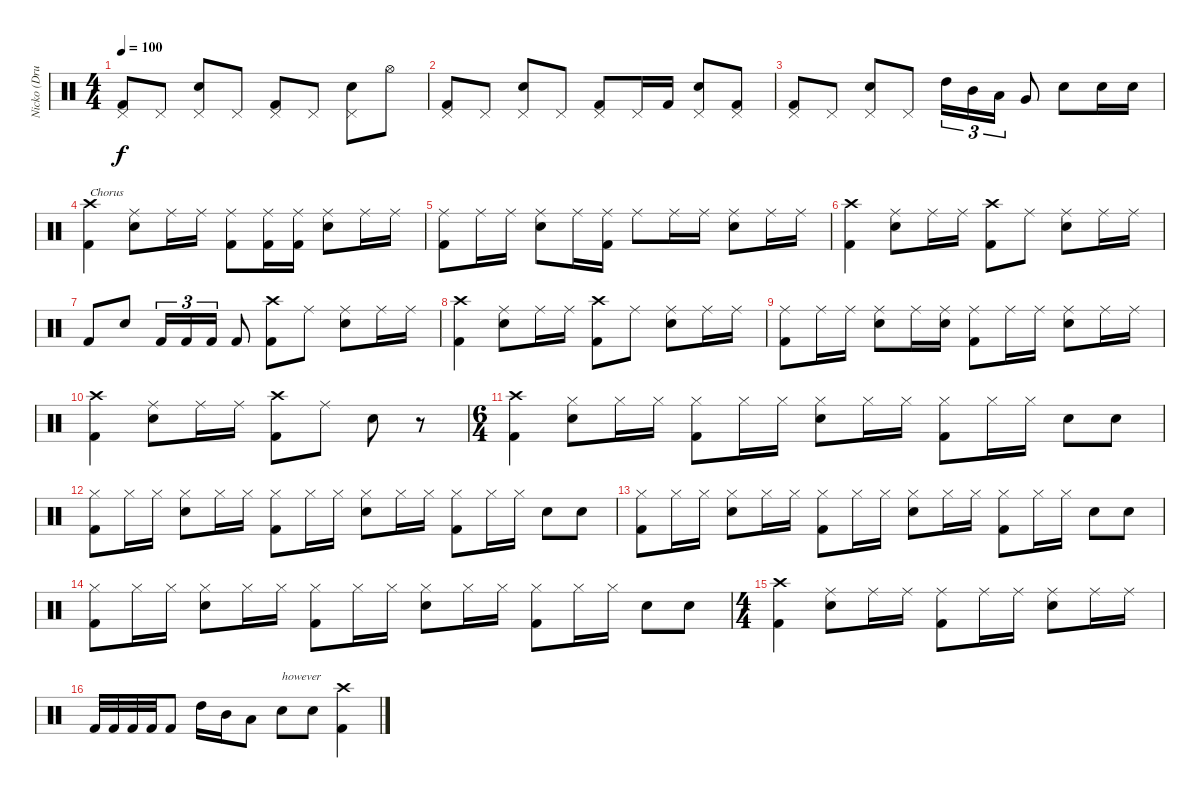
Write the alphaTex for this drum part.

\track ("Nicko (Drums)" "Nicko (Dru") {instrument percussion}
\staff {score}
\articulation defaults
\ts (4 4)
\tempo 100
\clef neutral
\ks c
("Pedal Hi-Hat (hit)" "Kick (hit) 2").8{dy f} "Pedal Hi-Hat (hit)".8 ("Pedal Hi-Hat (hit)" "Snare (hit) 2").8 "Pedal Hi-Hat (hit)".8 ("Pedal Hi-Hat (hit)" "Kick (hit) 2").8 "Pedal Hi-Hat (hit)".8 ("Pedal Hi-Hat (hit)" "Snare (hit) 2").8 "Hi-Hat (open)".8 |
("Pedal Hi-Hat (hit)" "Kick (hit) 2").8 "Pedal Hi-Hat (hit)".8 ("Pedal Hi-Hat (hit)" "Snare (hit) 2").8 "Pedal Hi-Hat (hit)".8 ("Pedal Hi-Hat (hit)" "Kick (hit) 2").8 "Pedal Hi-Hat (hit)".16 "Kick (hit) 2".16 ("Pedal Hi-Hat (hit)" "Snare (hit) 2").8 ("Pedal Hi-Hat (hit)" "Kick (hit) 2").8 |
("Pedal Hi-Hat (hit)" "Kick (hit) 2").8 "Pedal Hi-Hat (hit)".8 ("Pedal Hi-Hat (hit)" "Snare (hit) 2").8 "Pedal Hi-Hat (hit)".8 "High Tom (hit)".16{tu (3 2)} "Mid Tom (hit)".16{tu (3 2)} "Low Tom (hit)".16{tu (3 2)} "Very Low Tom (hit)".8 "Snare (hit) 2".8 "Snare (hit) 2".16 "Snare (hit) 2".16 |
("Crash high (hit)" "Kick (hit) 2").4{txt "Chorus"} ("Ride (middle)" "Snare (hit) 2").8 "Ride (middle)".16 "Ride (middle)".16 ("Ride (middle)" "Kick (hit) 2").8 ("Ride (middle)" "Kick (hit) 2").16 ("Ride (middle)" "Kick (hit) 2").16 ("Ride (middle)" "Snare (hit) 2").8 "Ride (middle)".16 "Ride (middle)".16 |
("Ride (middle)" "Kick (hit) 2").8 "Ride (middle)".16 "Ride (middle)".16 ("Ride (middle)" "Snare (hit) 2").8 "Ride (middle)".16 ("Ride (middle)" "Kick (hit) 2").16 "Ride (middle)".8 "Ride (middle)".16 "Ride (middle)".16 ("Ride (middle)" "Snare (hit) 2").8 "Ride (middle)".16 "Ride (middle)".16 |
("Crash high (hit)" "Kick (hit) 2").4 ("Ride (middle)" "Snare (hit) 2").8 "Ride (middle)".16 "Ride (middle)".16 ("Crash high (hit)" "Kick (hit) 2").8 "Ride (middle)".8 ("Ride (middle)" "Snare (hit) 2").8 "Ride (middle)".16 "Ride (middle)".16 |
"Kick (hit) 2".8 "Snare (hit) 2".8 "Kick (hit) 2".16{tu (3 2)} "Kick (hit) 2".16{tu (3 2)} "Kick (hit) 2".16{tu (3 2)} "Kick (hit) 2".8 ("Crash high (hit)" "Kick (hit) 2").8 "Ride (middle)".8 ("Ride (middle)" "Snare (hit) 2").8 "Ride (middle)".16 "Ride (middle)".16 |
("Crash high (hit)" "Kick (hit) 2").4 ("Ride (middle)" "Snare (hit) 2").8 "Ride (middle)".16 "Ride (middle)".16 ("Crash high (hit)" "Kick (hit) 2").8 "Ride (middle)".8 ("Ride (middle)" "Snare (hit) 2").8 "Ride (middle)".16 "Ride (middle)".16 |
("Ride (middle)" "Kick (hit) 2").8 "Ride (middle)".16 "Ride (middle)".16 ("Ride (middle)" "Snare (hit) 2").8 "Ride (middle)".16 ("Ride (middle)" "Snare (hit) 2").16 ("Ride (middle)" "Kick (hit) 2").8 "Ride (middle)".16 "Ride (middle)".16 ("Ride (middle)" "Snare (hit) 2").8 "Ride (middle)".16 "Ride (middle)".16 |
("Crash high (hit)" "Kick (hit) 2").4 ("Ride (middle)" "Snare (hit) 2").8 "Ride (middle)".16 "Ride (middle)".16 ("Crash high (hit)" "Kick (hit) 2").8 "Ride (middle)".8 "Snare (hit) 2".8 r.8 |
\ts (6 4)
("Crash high (hit)" "Kick (hit) 2").4 ("Hi-Hat (closed)" "Snare (hit) 2").8 "Hi-Hat (closed)".16 "Hi-Hat (closed)".16 ("Hi-Hat (closed)" "Kick (hit) 2").8 "Hi-Hat (closed)".16 "Hi-Hat (closed)".16 ("Hi-Hat (closed)" "Snare (hit) 2").8 "Hi-Hat (closed)".16 "Hi-Hat (closed)".16 ("Hi-Hat (closed)" "Kick (hit) 2").8 "Hi-Hat (closed)".16 "Hi-Hat (closed)".16 "Snare (hit) 2".8 "Snare (hit) 2".8 |
("Hi-Hat (closed)" "Kick (hit) 2").8 "Hi-Hat (closed)".16 "Hi-Hat (closed)".16 ("Hi-Hat (closed)" "Snare (hit) 2").8 "Hi-Hat (closed)".16 "Hi-Hat (closed)".16 ("Hi-Hat (closed)" "Kick (hit) 2").8 "Hi-Hat (closed)".16 "Hi-Hat (closed)".16 ("Hi-Hat (closed)" "Snare (hit) 2").8 "Hi-Hat (closed)".16 "Hi-Hat (closed)".16 ("Hi-Hat (closed)" "Kick (hit) 2").8 "Hi-Hat (closed)".16 "Hi-Hat (closed)".16 "Snare (hit) 2".8 "Snare (hit) 2".8 |
("Hi-Hat (closed)" "Kick (hit) 2").8 "Hi-Hat (closed)".16 "Hi-Hat (closed)".16 ("Hi-Hat (closed)" "Snare (hit) 2").8 "Hi-Hat (closed)".16 "Hi-Hat (closed)".16 ("Hi-Hat (closed)" "Kick (hit) 2").8 "Hi-Hat (closed)".16 "Hi-Hat (closed)".16 ("Hi-Hat (closed)" "Snare (hit) 2").8 "Hi-Hat (closed)".16 "Hi-Hat (closed)".16 ("Hi-Hat (closed)" "Kick (hit) 2").8 "Hi-Hat (closed)".16 "Hi-Hat (closed)".16 "Snare (hit) 2".8 "Snare (hit) 2".8 |
("Hi-Hat (closed)" "Kick (hit) 2").8 "Hi-Hat (closed)".16 "Hi-Hat (closed)".16 ("Hi-Hat (closed)" "Snare (hit) 2").8 "Hi-Hat (closed)".16 "Hi-Hat (closed)".16 ("Hi-Hat (closed)" "Kick (hit) 2").8 "Hi-Hat (closed)".16 "Hi-Hat (closed)".16 ("Hi-Hat (closed)" "Snare (hit) 2").8 "Hi-Hat (closed)".16 "Hi-Hat (closed)".16 ("Hi-Hat (closed)" "Kick (hit) 2").8 "Hi-Hat (closed)".16 "Hi-Hat (closed)".16 "Snare (hit) 2".8 "Snare (hit) 2".8 |
\ts (4 4)
("Crash high (hit)" "Kick (hit) 2").4 ("Ride (middle)" "Snare (hit) 2").8 "Ride (middle)".16 "Ride (middle)".16 ("Ride (middle)" "Kick (hit) 2").8 "Ride (middle)".16 "Ride (middle)".16 ("Ride (middle)" "Snare (hit) 2").8 "Ride (middle)".16 "Ride (middle)".16 |
"Kick (hit) 2".32 "Kick (hit) 2".32 "Kick (hit) 2".32 "Kick (hit) 2".32 "Kick (hit) 2".8 "High Tom (hit)".16 "Mid Tom (hit)".16 "Low Tom (hit)".8 "Snare (hit) 2".8{txt "however"} "Snare (hit) 2".8 ("Crash high (hit)" "Kick (hit) 2").4
